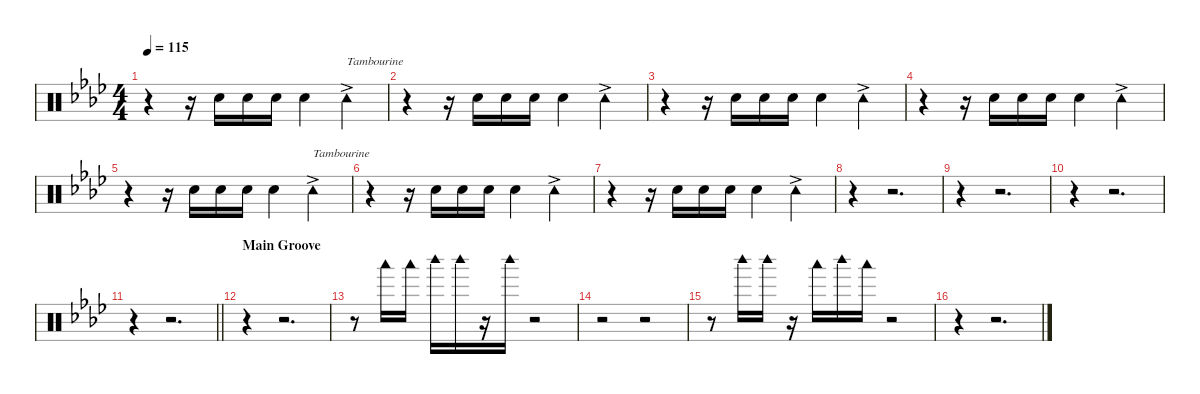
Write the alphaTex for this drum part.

\defaultSystemsLayout 4
\hideDynamics
\bracketExtendMode nobrackets
\singleTrackTrackNamePolicy hidden
\multiTrackTrackNamePolicy hidden
\firstSystemTrackNameMode fullname
\firstSystemTrackNameOrientation horizontal
\otherSystemsTrackNameOrientation horizontal
\track ("Percussion" "drm.") {instrument percussion}
\staff {score}
\articulation defaults
\ts (4 4)
\tempo 115
\clef neutral
\ks ab
r.4{dy f beam Down} r.16{beam Down} "Snare (hit) 2"{acc forcenatural}.16{dy pp beam Down} "Snare (hit) 2"{acc forcenatural}.16{beam Down} "Snare (hit) 2"{acc forcenatural}.16{beam Down} "Snare (hit) 2"{acc forcenatural}.4{beam Down} "Tambourine (hit)"{ac acc forcenatural}.4{txt "Tambourine" dy f beam Down} |
r.4{beam Down} r.16{beam Down} "Snare (hit) 2"{acc forcenatural}.16{dy pp beam Down} "Snare (hit) 2"{acc forcenatural}.16{beam Down} "Snare (hit) 2"{acc forcenatural}.16{beam Down} "Snare (hit) 2"{acc forcenatural}.4{beam Down} "Tambourine (hit)"{ac acc forcenatural}.4{dy f beam Down} |
r.4{beam Down} r.16{beam Down} "Snare (hit) 2"{acc forcenatural}.16{dy pp beam Down} "Snare (hit) 2"{acc forcenatural}.16{beam Down} "Snare (hit) 2"{acc forcenatural}.16{beam Down} "Snare (hit) 2"{acc forcenatural}.4{beam Down} "Tambourine (hit)"{ac acc forcenatural}.4{dy f beam Down} |
r.4{beam Down} r.16{beam Down} "Snare (hit) 2"{acc forcenatural}.16{dy pp beam Down} "Snare (hit) 2"{acc forcenatural}.16{beam Down} "Snare (hit) 2"{acc forcenatural}.16{beam Down} "Snare (hit) 2"{acc forcenatural}.4{beam Down} "Tambourine (hit)"{ac acc forcenatural}.4{dy f beam Down} |
r.4{beam Down} r.16{beam Down} "Snare (hit) 2"{acc forcenatural}.16{dy pp beam Down} "Snare (hit) 2"{acc forcenatural}.16{beam Down} "Snare (hit) 2"{acc forcenatural}.16{beam Down} "Snare (hit) 2"{acc forcenatural}.4{beam Down} "Tambourine (hit)"{ac acc forcenatural}.4{txt "Tambourine" dy f beam Down} |
r.4{beam Down} r.16{beam Down} "Snare (hit) 2"{acc forcenatural}.16{dy pp beam Down} "Snare (hit) 2"{acc forcenatural}.16{beam Down} "Snare (hit) 2"{acc forcenatural}.16{beam Down} "Snare (hit) 2"{acc forcenatural}.4{beam Down} "Tambourine (hit)"{ac acc forcenatural}.4{dy f beam Down} |
r.4{beam Down} r.16{beam Down} "Snare (hit) 2"{acc forcenatural}.16{dy pp beam Down} "Snare (hit) 2"{acc forcenatural}.16{beam Down} "Snare (hit) 2"{acc forcenatural}.16{beam Down} "Snare (hit) 2"{acc forcenatural}.4{beam Down} "Tambourine (hit)"{ac acc forcenatural}.4{dy f beam Down} |
r.4{beam Down} r.2{d beam Down} |
r.4{beam Down} r.2{d beam Down} |
r.4{beam Down} r.2{d beam Down} |
\barLineRight lightlight
r.4{beam Down} r.2{d beam Down} |
\section ("" "Main Groove")
r.4{beam Down} r.2{d beam Down} |
r.8{beam Down} "Woodblock low (hit)"{acc forcenatural}.16{dy mp beam Down} "Woodblock low (hit)"{acc forcenatural}.16{beam Down} "Woodblock high (hit)"{acc forcenatural}.16{beam Down} "Woodblock high (hit)"{acc forcenatural}.16{beam Down} r.16{beam Down} "Woodblock high (hit)"{acc forcenatural}.16{beam Down} r.2{beam Down} |
r.2{beam Down} r.2{beam Down} |
r.8{beam Down} "Woodblock high (hit)"{acc forcenatural}.16{beam Down} "Woodblock high (hit)"{acc forcenatural}.16{beam Down} r.16{beam Down} "Woodblock low (hit)"{acc forcenatural}.16{beam Down} "Woodblock high (hit)"{acc forcenatural}.16{beam Down} "Woodblock low (hit)"{acc forcenatural}.16{beam Down} r.2{beam Down} |
r.4{beam Down} r.2{d beam Down}
